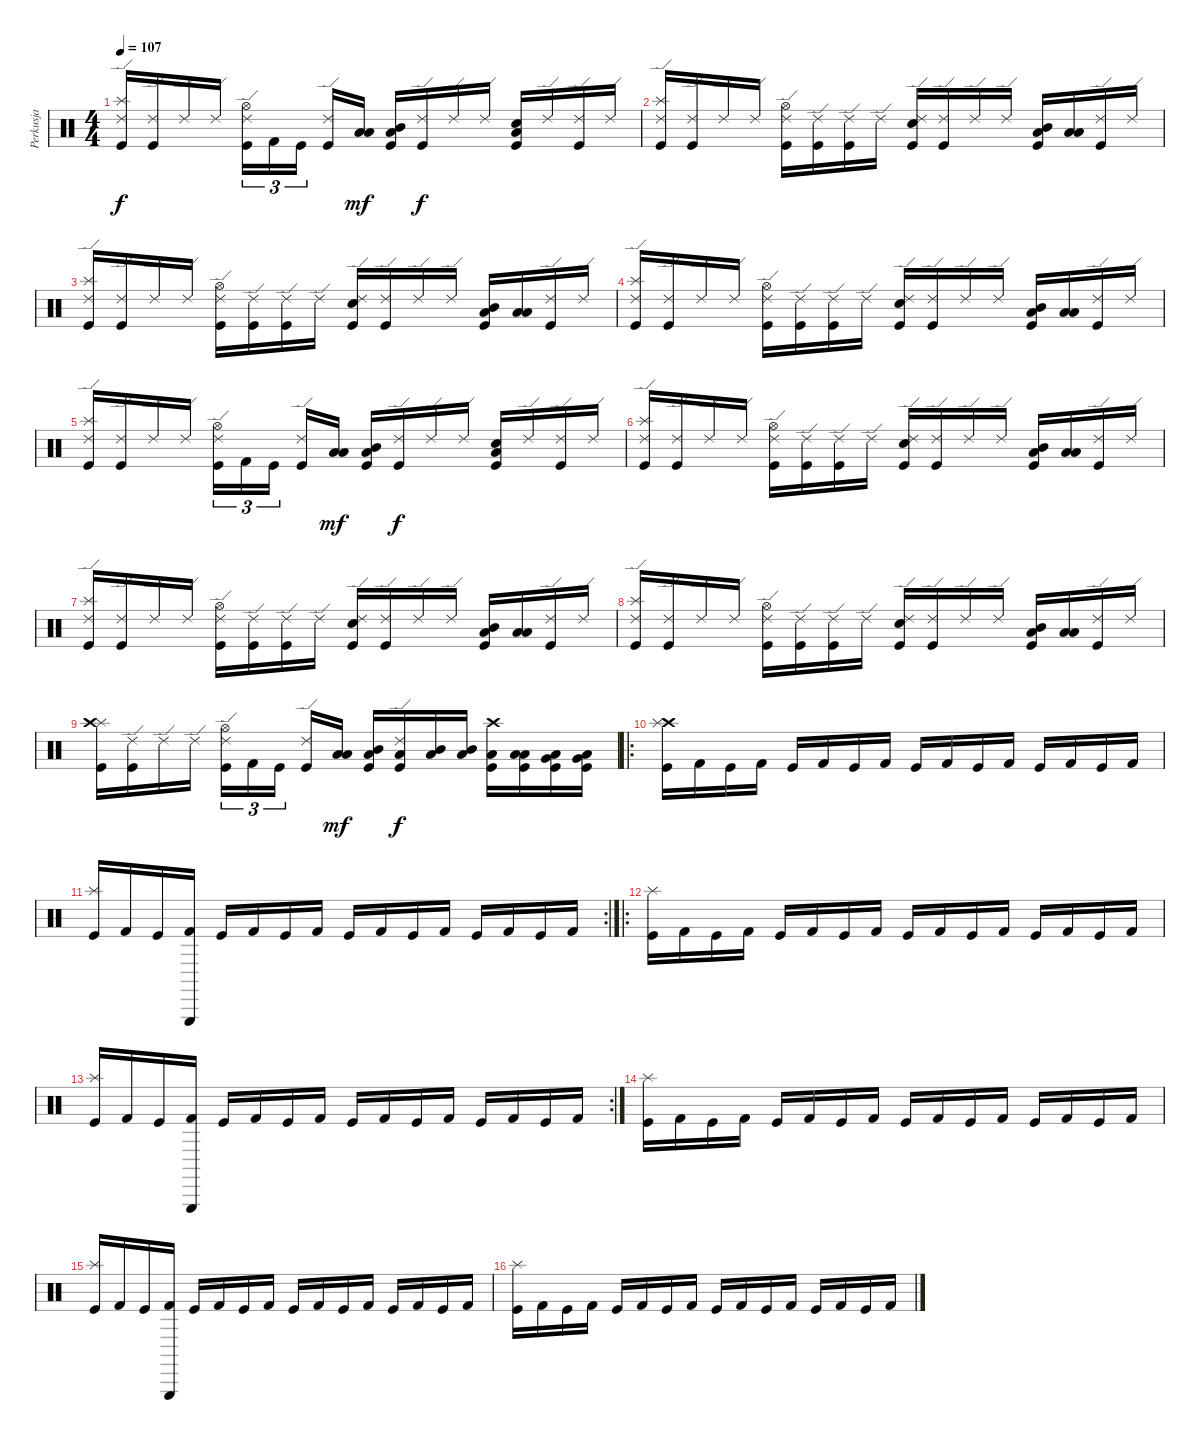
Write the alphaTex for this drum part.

\track ("Perkusja" "Perkusja") {instrument percussion}
\staff {score}
\articulation defaults
\ts (4 4)
\tempo 107
\clef neutral
\ks c
("Ride (edge) 2" "Splash (hit)" "Kick (hit)").16{dy f} ("Ride (edge) 2" "Kick (hit)").16 "Ride (edge) 2".16 "Ride (edge) 2".16 ("Ride (edge) 2" "Hi-Hat (open)" "Kick (hit)").16{tu (3 2)} "Kick (hit) 2".16{tu (3 2)} "Kick (hit)".16{tu (3 2)} ("Ride (edge) 2" "Kick (hit)").16 ("Low Floor Tom (hit)" "Low Tom (hit)").16{dy mf} ("Low Floor Tom (hit)" "Mid Tom (hit)" "Kick (hit)").16 ("Ride (edge) 2" "Kick (hit)").16{dy f} "Ride (edge) 2".16 "Ride (edge) 2".16 ("Electric Snare (hit)" "Low Floor Tom (hit)" "Kick (hit)").16 "Ride (edge) 2".16 ("Ride (edge) 2" "Kick (hit)").16 "Ride (edge) 2".16 |
("Ride (edge) 2" "Splash (hit)" "Kick (hit)").16 ("Ride (edge) 2" "Kick (hit)").16 "Ride (edge) 2".16 "Ride (edge) 2".16 ("Ride (edge) 2" "Hi-Hat (open)" "Kick (hit)").16 ("Ride (edge) 2" "Kick (hit)").16 ("Ride (edge) 2" "Kick (hit)").16 "Ride (edge) 2".16 ("Ride (edge) 2" "Electric Snare (hit)" "Kick (hit)").16 ("Ride (edge) 2" "Kick (hit)").16 "Ride (edge) 2".16 "Ride (edge) 2".16 ("Low Floor Tom (hit)" "Mid Tom (hit)" "Kick (hit)").16 ("Low Floor Tom (hit)" "Low Tom (hit)").16 ("Ride (edge) 2" "Kick (hit)").16 "Ride (edge) 2".16 |
("Ride (edge) 2" "Splash (hit)" "Kick (hit)").16 ("Ride (edge) 2" "Kick (hit)").16 "Ride (edge) 2".16 "Ride (edge) 2".16 ("Ride (edge) 2" "Hi-Hat (open)" "Kick (hit)").16 ("Ride (edge) 2" "Kick (hit)").16 ("Ride (edge) 2" "Kick (hit)").16 "Ride (edge) 2".16 ("Ride (edge) 2" "Electric Snare (hit)" "Kick (hit)").16 ("Ride (edge) 2" "Kick (hit)").16 "Ride (edge) 2".16 "Ride (edge) 2".16 ("Low Floor Tom (hit)" "Mid Tom (hit)" "Kick (hit)").16 ("Low Floor Tom (hit)" "Low Tom (hit)").16 ("Ride (edge) 2" "Kick (hit)").16 "Ride (edge) 2".16 |
("Ride (edge) 2" "Splash (hit)" "Kick (hit)").16 ("Ride (edge) 2" "Kick (hit)").16 "Ride (edge) 2".16 "Ride (edge) 2".16 ("Ride (edge) 2" "Hi-Hat (open)" "Kick (hit)").16 ("Ride (edge) 2" "Kick (hit)").16 ("Ride (edge) 2" "Kick (hit)").16 "Ride (edge) 2".16 ("Ride (edge) 2" "Electric Snare (hit)" "Kick (hit)").16 ("Ride (edge) 2" "Kick (hit)").16 "Ride (edge) 2".16 "Ride (edge) 2".16 ("Low Floor Tom (hit)" "Mid Tom (hit)" "Kick (hit)").16 ("Low Floor Tom (hit)" "Low Tom (hit)").16 ("Ride (edge) 2" "Kick (hit)").16 "Ride (edge) 2".16 |
("Ride (edge) 2" "Splash (hit)" "Kick (hit)").16 ("Ride (edge) 2" "Kick (hit)").16 "Ride (edge) 2".16 "Ride (edge) 2".16 ("Ride (edge) 2" "Hi-Hat (open)" "Kick (hit)").16{tu (3 2)} "Kick (hit) 2".16{tu (3 2)} "Kick (hit)".16{tu (3 2)} ("Ride (edge) 2" "Kick (hit)").16 ("Low Floor Tom (hit)" "Low Tom (hit)").16{dy mf} ("Low Floor Tom (hit)" "Mid Tom (hit)" "Kick (hit)").16 ("Ride (edge) 2" "Kick (hit)").16{dy f} "Ride (edge) 2".16 "Ride (edge) 2".16 ("Electric Snare (hit)" "Low Floor Tom (hit)" "Kick (hit)").16 "Ride (edge) 2".16 ("Ride (edge) 2" "Kick (hit)").16 "Ride (edge) 2".16 |
("Ride (edge) 2" "Splash (hit)" "Kick (hit)").16 ("Ride (edge) 2" "Kick (hit)").16 "Ride (edge) 2".16 "Ride (edge) 2".16 ("Ride (edge) 2" "Hi-Hat (open)" "Kick (hit)").16 ("Ride (edge) 2" "Kick (hit)").16 ("Ride (edge) 2" "Kick (hit)").16 "Ride (edge) 2".16 ("Ride (edge) 2" "Electric Snare (hit)" "Kick (hit)").16 ("Ride (edge) 2" "Kick (hit)").16 "Ride (edge) 2".16 "Ride (edge) 2".16 ("Low Floor Tom (hit)" "Mid Tom (hit)" "Kick (hit)").16 ("Low Floor Tom (hit)" "Low Tom (hit)").16 ("Ride (edge) 2" "Kick (hit)").16 "Ride (edge) 2".16 |
("Ride (edge) 2" "Splash (hit)" "Kick (hit)").16 ("Ride (edge) 2" "Kick (hit)").16 "Ride (edge) 2".16 "Ride (edge) 2".16 ("Ride (edge) 2" "Hi-Hat (open)" "Kick (hit)").16 ("Ride (edge) 2" "Kick (hit)").16 ("Ride (edge) 2" "Kick (hit)").16 "Ride (edge) 2".16 ("Ride (edge) 2" "Electric Snare (hit)" "Kick (hit)").16 ("Ride (edge) 2" "Kick (hit)").16 "Ride (edge) 2".16 "Ride (edge) 2".16 ("Low Floor Tom (hit)" "Mid Tom (hit)" "Kick (hit)").16 ("Low Floor Tom (hit)" "Low Tom (hit)").16 ("Ride (edge) 2" "Kick (hit)").16 "Ride (edge) 2".16 |
("Ride (edge) 2" "Splash (hit)" "Kick (hit)").16 ("Ride (edge) 2" "Kick (hit)").16 "Ride (edge) 2".16 "Ride (edge) 2".16 ("Ride (edge) 2" "Hi-Hat (open)" "Kick (hit)").16 ("Ride (edge) 2" "Kick (hit)").16 ("Ride (edge) 2" "Kick (hit)").16 "Ride (edge) 2".16 ("Ride (edge) 2" "Electric Snare (hit)" "Kick (hit)").16 ("Ride (edge) 2" "Kick (hit)").16 "Ride (edge) 2".16 "Ride (edge) 2".16 ("Low Floor Tom (hit)" "Mid Tom (hit)" "Kick (hit)").16 ("Low Floor Tom (hit)" "Low Tom (hit)").16 ("Ride (edge) 2" "Kick (hit)").16 "Ride (edge) 2".16 |
("Splash (hit)" "Crash high (hit)" "Kick (hit)").16 ("Ride (edge) 2" "Kick (hit)").16 "Ride (edge) 2".16 "Ride (edge) 2".16 ("Ride (edge) 2" "Hi-Hat (open)" "Kick (hit)").16{tu (3 2)} "Kick (hit) 2".16{tu (3 2)} "Kick (hit)".16{tu (3 2)} ("Ride (edge) 2" "Kick (hit)").16 ("Low Floor Tom (hit)" "Low Tom (hit)").16{dy mf} ("Low Floor Tom (hit)" "Mid Tom (hit)" "Kick (hit)").16 ("Ride (edge) 2" "Low Floor Tom (hit)" "Kick (hit)").16{dy f} ("Mid Tom (hit)" "Low Floor Tom (hit)").16 ("Mid Tom (hit)" "Low Floor Tom (hit)").16 ("Crash high (hit)" "Low Tom (hit)" "Kick (hit)").16 ("Low Tom (hit)" "Low Floor Tom (hit)" "Kick (hit)").16 ("Very Low Tom (hit)" "Low Floor Tom (hit)" "Kick (hit)").16 ("Very Low Tom (hit)" "Low Floor Tom (hit)" "Kick (hit)").16 |
\ro
("Crash high (hit)" "Splash (hit)" "Kick (hit)").16 "Kick (hit) 2".16 "Kick (hit)".16 "Kick (hit) 2".16 "Kick (hit)".16 "Kick (hit) 2".16 "Kick (hit)".16 "Kick (hit) 2".16 "Kick (hit)".16 "Kick (hit) 2".16 "Kick (hit)".16 "Kick (hit) 2".16 "Kick (hit)".16 "Kick (hit) 2".16 "Kick (hit)".16 "Kick (hit) 2".16 |
\rc 2
("Splash (hit)" "Kick (hit)").16 "Kick (hit) 2".16 "Kick (hit)".16 ("Triangle (hit)" "Kick (hit) 2").16 "Kick (hit)".16 "Kick (hit) 2".16 "Kick (hit)".16 "Kick (hit) 2".16 "Kick (hit)".16 "Kick (hit) 2".16 "Kick (hit)".16 "Kick (hit) 2".16 "Kick (hit)".16 "Kick (hit) 2".16 "Kick (hit)".16 "Kick (hit) 2".16 |
\ro
("Splash (hit)" "Kick (hit)").16 "Kick (hit) 2".16 "Kick (hit)".16 "Kick (hit) 2".16 "Kick (hit)".16 "Kick (hit) 2".16 "Kick (hit)".16 "Kick (hit) 2".16 "Kick (hit)".16 "Kick (hit) 2".16 "Kick (hit)".16 "Kick (hit) 2".16 "Kick (hit)".16 "Kick (hit) 2".16 "Kick (hit)".16 "Kick (hit) 2".16 |
\rc 2
("Splash (hit)" "Kick (hit)").16 "Kick (hit) 2".16 "Kick (hit)".16 ("Triangle (hit)" "Kick (hit) 2").16 "Kick (hit)".16 "Kick (hit) 2".16 "Kick (hit)".16 "Kick (hit) 2".16 "Kick (hit)".16 "Kick (hit) 2".16 "Kick (hit)".16 "Kick (hit) 2".16 "Kick (hit)".16 "Kick (hit) 2".16 "Kick (hit)".16 "Kick (hit) 2".16 |
("Splash (hit)" "Kick (hit)").16 "Kick (hit) 2".16 "Kick (hit)".16 "Kick (hit) 2".16 "Kick (hit)".16 "Kick (hit) 2".16 "Kick (hit)".16 "Kick (hit) 2".16 "Kick (hit)".16 "Kick (hit) 2".16 "Kick (hit)".16 "Kick (hit) 2".16 "Kick (hit)".16 "Kick (hit) 2".16 "Kick (hit)".16 "Kick (hit) 2".16 |
("Splash (hit)" "Kick (hit)").16 "Kick (hit) 2".16 "Kick (hit)".16 ("Triangle (hit)" "Kick (hit) 2").16 "Kick (hit)".16 "Kick (hit) 2".16 "Kick (hit)".16 "Kick (hit) 2".16 "Kick (hit)".16 "Kick (hit) 2".16 "Kick (hit)".16 "Kick (hit) 2".16 "Kick (hit)".16 "Kick (hit) 2".16 "Kick (hit)".16 "Kick (hit) 2".16 |
("Splash (hit)" "Kick (hit)").16 "Kick (hit) 2".16 "Kick (hit)".16 "Kick (hit) 2".16 "Kick (hit)".16 "Kick (hit) 2".16 "Kick (hit)".16 "Kick (hit) 2".16 "Kick (hit)".16 "Kick (hit) 2".16 "Kick (hit)".16 "Kick (hit) 2".16 "Kick (hit)".16 "Kick (hit) 2".16 "Kick (hit)".16 "Kick (hit) 2".16
